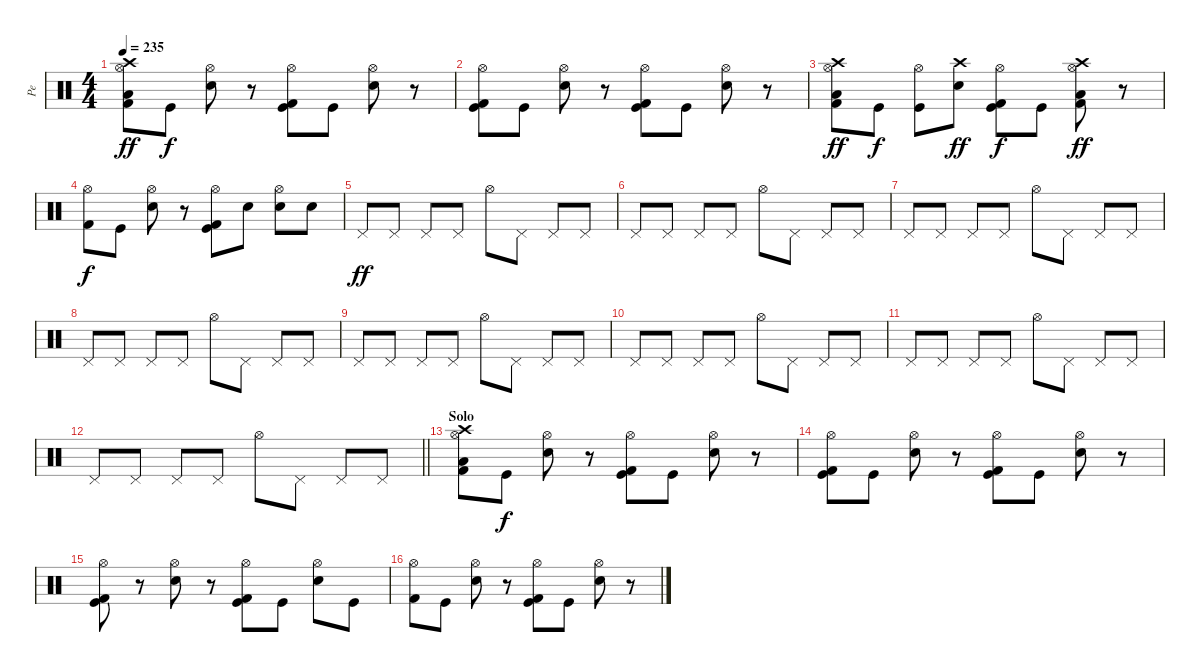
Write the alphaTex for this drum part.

\track ("Pe" "Pe") {instrument percussion}
\staff {score}
\articulation defaults
\ts (4 4)
\tempo 235
\clef neutral
\ks c
("Low Tom (hit)" "Hi-Hat (open)" "Kick (hit) 2" "Crash high (hit)").8{dy ff} "Kick (hit)".8{dy f} ("Electric Snare (hit)" "Hi-Hat (open)").8 r.8 ("Kick (hit)" "Hi-Hat (open)" "Kick (hit) 2").8 "Kick (hit)".8 ("Electric Snare (hit)" "Hi-Hat (open)").8 r.8 |
("Kick (hit)" "Hi-Hat (open)" "Kick (hit) 2").8 "Kick (hit)".8 ("Electric Snare (hit)" "Hi-Hat (open)").8 r.8 ("Kick (hit)" "Hi-Hat (open)" "Kick (hit) 2").8 "Kick (hit)".8 ("Electric Snare (hit)" "Hi-Hat (open)").8 r.8 |
("Low Tom (hit)" "Hi-Hat (open)" "Kick (hit) 2" "Crash high (hit)").8{dy ff} "Kick (hit)".8{dy f} ("Kick (hit)" "Hi-Hat (open)").8 ("Crash high (hit)" "Electric Snare (hit)").8{dy ff} ("Kick (hit)" "Hi-Hat (open)" "Kick (hit) 2").8{dy f} "Kick (hit)".8 ("Low Tom (hit)" "Hi-Hat (open)" "Kick (hit) 2" "Crash high (hit)").8{dy ff} r.8 |
("Hi-Hat (open)" "Kick (hit) 2").8{dy f} "Kick (hit)".8 ("Electric Snare (hit)" "Hi-Hat (open)").8 r.8 ("Kick (hit)" "Hi-Hat (open)" "Kick (hit) 2").8 "Electric Snare (hit)".8 ("Electric Snare (hit)" "Hi-Hat (open)").8 "Electric Snare (hit)".8 |
"Pedal Hi-Hat (hit)".8{dy ff} "Pedal Hi-Hat (hit)".8 "Pedal Hi-Hat (hit)".8 "Pedal Hi-Hat (hit)".8 "Hi-Hat (open)".8 "Pedal Hi-Hat (hit)".8 "Pedal Hi-Hat (hit)".8 "Pedal Hi-Hat (hit)".8 |
"Pedal Hi-Hat (hit)".8 "Pedal Hi-Hat (hit)".8 "Pedal Hi-Hat (hit)".8 "Pedal Hi-Hat (hit)".8 "Hi-Hat (open)".8 "Pedal Hi-Hat (hit)".8 "Pedal Hi-Hat (hit)".8 "Pedal Hi-Hat (hit)".8 |
"Pedal Hi-Hat (hit)".8 "Pedal Hi-Hat (hit)".8 "Pedal Hi-Hat (hit)".8 "Pedal Hi-Hat (hit)".8 "Hi-Hat (open)".8 "Pedal Hi-Hat (hit)".8 "Pedal Hi-Hat (hit)".8 "Pedal Hi-Hat (hit)".8 |
"Pedal Hi-Hat (hit)".8 "Pedal Hi-Hat (hit)".8 "Pedal Hi-Hat (hit)".8 "Pedal Hi-Hat (hit)".8 "Hi-Hat (open)".8 "Pedal Hi-Hat (hit)".8 "Pedal Hi-Hat (hit)".8 "Pedal Hi-Hat (hit)".8 |
"Pedal Hi-Hat (hit)".8 "Pedal Hi-Hat (hit)".8 "Pedal Hi-Hat (hit)".8 "Pedal Hi-Hat (hit)".8 "Hi-Hat (open)".8 "Pedal Hi-Hat (hit)".8 "Pedal Hi-Hat (hit)".8 "Pedal Hi-Hat (hit)".8 |
"Pedal Hi-Hat (hit)".8 "Pedal Hi-Hat (hit)".8 "Pedal Hi-Hat (hit)".8 "Pedal Hi-Hat (hit)".8 "Hi-Hat (open)".8 "Pedal Hi-Hat (hit)".8 "Pedal Hi-Hat (hit)".8 "Pedal Hi-Hat (hit)".8 |
"Pedal Hi-Hat (hit)".8 "Pedal Hi-Hat (hit)".8 "Pedal Hi-Hat (hit)".8 "Pedal Hi-Hat (hit)".8 "Hi-Hat (open)".8 "Pedal Hi-Hat (hit)".8 "Pedal Hi-Hat (hit)".8 "Pedal Hi-Hat (hit)".8 |
\barLineRight lightlight "Pedal Hi-Hat (hit)".8 "Pedal Hi-Hat (hit)".8 "Pedal Hi-Hat (hit)".8 "Pedal Hi-Hat (hit)".8 "Hi-Hat (open)".8 "Pedal Hi-Hat (hit)".8 "Pedal Hi-Hat (hit)".8 "Pedal Hi-Hat (hit)".8
|
\section ("" "Solo")
("Low Tom (hit)" "Hi-Hat (open)" "Kick (hit) 2" "Crash high (hit)").8 "Kick (hit)".8{dy f} ("Electric Snare (hit)" "Hi-Hat (open)").8 r.8 ("Kick (hit)" "Hi-Hat (open)" "Kick (hit) 2").8 "Kick (hit)".8 ("Electric Snare (hit)" "Hi-Hat (open)").8 r.8 |
("Kick (hit)" "Hi-Hat (open)" "Kick (hit) 2").8 "Kick (hit)".8 ("Electric Snare (hit)" "Hi-Hat (open)").8 r.8 ("Kick (hit)" "Hi-Hat (open)" "Kick (hit) 2").8 "Kick (hit)".8 ("Electric Snare (hit)" "Hi-Hat (open)").8 r.8 |
("Kick (hit)" "Hi-Hat (open)" "Kick (hit) 2").8 r.8 ("Electric Snare (hit)" "Hi-Hat (open)").8 r.8 ("Kick (hit)" "Hi-Hat (open)" "Kick (hit) 2").8 "Kick (hit)".8 ("Electric Snare (hit)" "Hi-Hat (open)").8 "Kick (hit)".8 |
("Hi-Hat (open)" "Kick (hit) 2").8 "Kick (hit)".8 ("Electric Snare (hit)" "Hi-Hat (open)").8 r.8 ("Kick (hit)" "Hi-Hat (open)" "Kick (hit) 2").8 "Kick (hit)".8 ("Electric Snare (hit)" "Hi-Hat (open)").8 r.8
